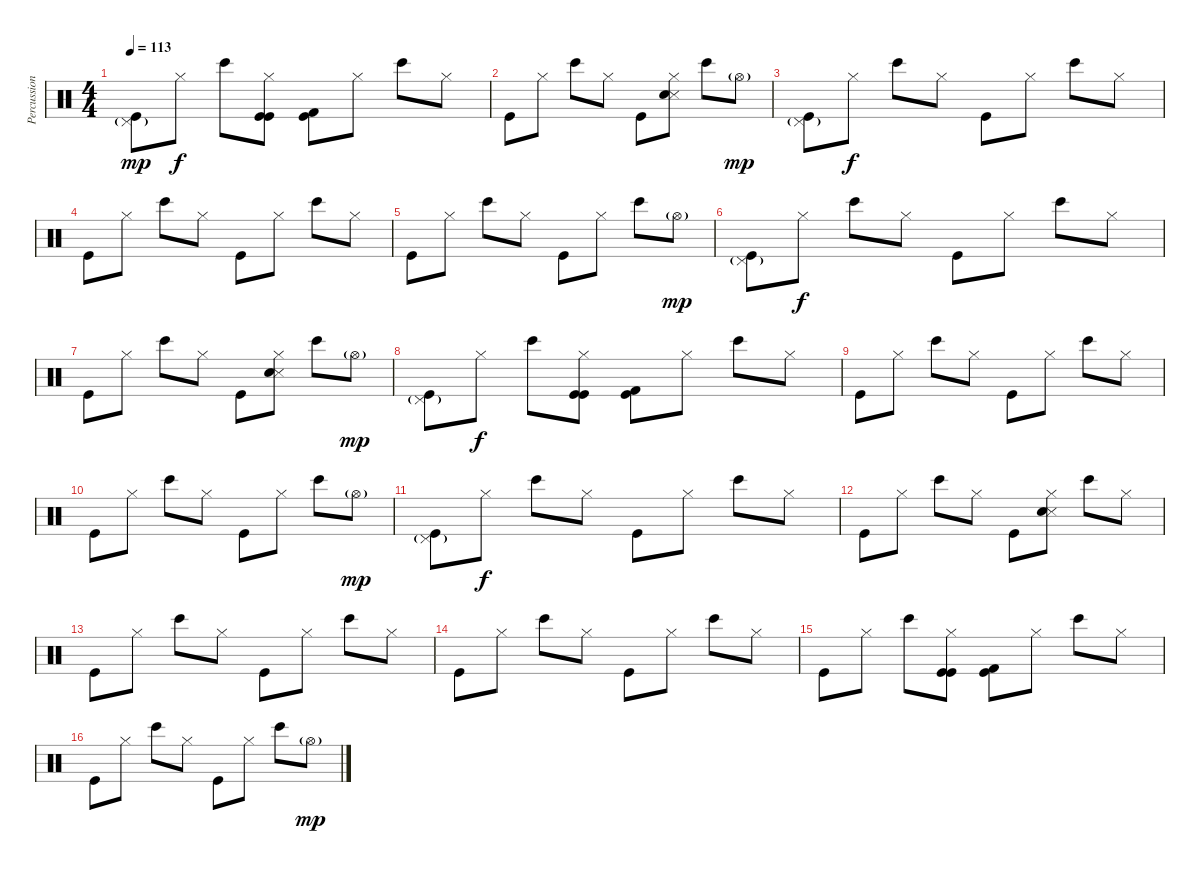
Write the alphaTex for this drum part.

\track ("Percussion" "Percussion") {instrument percussion}
\staff {score}
\articulation defaults
\ts (4 4)
\tempo 113
\clef neutral
\ks c
("Pedal Hi-Hat (hit)"{g} "Kick (hit)").8{dy mp} "Hi-Hat (closed)".8{dy f} "Bongo High (hit)".8 ("Hi-Hat (closed)" "Kick (hit)" "Kick (hit)").8 ("Kick (hit) 2" "Kick (hit)").8 "Hi-Hat (closed)".8 "Bongo High (hit)".8 "Hi-Hat (closed)".8 |
"Kick (hit)".8 "Hi-Hat (closed)".8 "Bongo High (hit)".8 "Hi-Hat (closed)".8 "Kick (hit)".8 ("Hi-Hat (closed)" "Snare (side stick) 3" "Snare (hit)").8 "Bongo High (hit)".8 "Hi-Hat (open)"{g}.8{dy mp} |
("Pedal Hi-Hat (hit)"{g} "Kick (hit)").8 "Hi-Hat (closed)".8{dy f} "Bongo High (hit)".8 "Hi-Hat (closed)".8 "Kick (hit)".8 "Hi-Hat (closed)".8 "Bongo High (hit)".8 "Hi-Hat (closed)".8 |
"Kick (hit)".8 "Hi-Hat (closed)".8 "Bongo High (hit)".8 "Hi-Hat (closed)".8 "Kick (hit)".8 "Hi-Hat (closed)".8 "Bongo High (hit)".8 "Hi-Hat (closed)".8 |
"Kick (hit)".8 "Hi-Hat (closed)".8 "Bongo High (hit)".8 "Hi-Hat (closed)".8 "Kick (hit)".8 "Hi-Hat (closed)".8 "Bongo High (hit)".8 "Hi-Hat (open)"{g}.8{dy mp} |
("Pedal Hi-Hat (hit)"{g} "Kick (hit)").8 "Hi-Hat (closed)".8{dy f} "Bongo High (hit)".8 "Hi-Hat (closed)".8 "Kick (hit)".8 "Hi-Hat (closed)".8 "Bongo High (hit)".8 "Hi-Hat (closed)".8 |
"Kick (hit)".8 "Hi-Hat (closed)".8 "Bongo High (hit)".8 "Hi-Hat (closed)".8 "Kick (hit)".8 ("Hi-Hat (closed)" "Snare (side stick) 3" "Snare (hit)").8 "Bongo High (hit)".8 "Hi-Hat (open)"{g}.8{dy mp} |
("Pedal Hi-Hat (hit)"{g} "Kick (hit)").8 "Hi-Hat (closed)".8{dy f} "Bongo High (hit)".8 ("Hi-Hat (closed)" "Kick (hit)" "Kick (hit)").8 ("Kick (hit) 2" "Kick (hit)").8 "Hi-Hat (closed)".8 "Bongo High (hit)".8 "Hi-Hat (closed)".8 |
"Kick (hit)".8 "Hi-Hat (closed)".8 "Bongo High (hit)".8 "Hi-Hat (closed)".8 "Kick (hit)".8 "Hi-Hat (closed)".8 "Bongo High (hit)".8 "Hi-Hat (closed)".8 |
"Kick (hit)".8 "Hi-Hat (closed)".8 "Bongo High (hit)".8 "Hi-Hat (closed)".8 "Kick (hit)".8 "Hi-Hat (closed)".8 "Bongo High (hit)".8 "Hi-Hat (open)"{g}.8{dy mp} |
("Pedal Hi-Hat (hit)"{g} "Kick (hit)").8 "Hi-Hat (closed)".8{dy f} "Bongo High (hit)".8 "Hi-Hat (closed)".8 "Kick (hit)".8 "Hi-Hat (closed)".8 "Bongo High (hit)".8 "Hi-Hat (closed)".8 |
"Kick (hit)".8 "Hi-Hat (closed)".8 "Bongo High (hit)".8 "Hi-Hat (closed)".8 "Kick (hit)".8 ("Hi-Hat (closed)" "Snare (side stick) 3" "Snare (hit)").8 "Bongo High (hit)".8 "Hi-Hat (closed)".8 |
"Kick (hit)".8 "Hi-Hat (closed)".8 "Bongo High (hit)".8 "Hi-Hat (closed)".8 "Kick (hit)".8 "Hi-Hat (closed)".8 "Bongo High (hit)".8 "Hi-Hat (closed)".8 |
"Kick (hit)".8 "Hi-Hat (closed)".8 "Bongo High (hit)".8 "Hi-Hat (closed)".8 "Kick (hit)".8 "Hi-Hat (closed)".8 "Bongo High (hit)".8 "Hi-Hat (closed)".8 |
"Kick (hit)".8 "Hi-Hat (closed)".8 "Bongo High (hit)".8 ("Hi-Hat (closed)" "Kick (hit)" "Kick (hit)").8 ("Kick (hit)" "Kick (hit) 2").8 "Hi-Hat (closed)".8 "Bongo High (hit)".8 "Hi-Hat (closed)".8 |
"Kick (hit)".8 "Hi-Hat (closed)".8 "Bongo High (hit)".8 "Hi-Hat (closed)".8 "Kick (hit)".8 "Hi-Hat (closed)".8 "Bongo High (hit)".8 "Hi-Hat (open)"{g}.8{dy mp}
